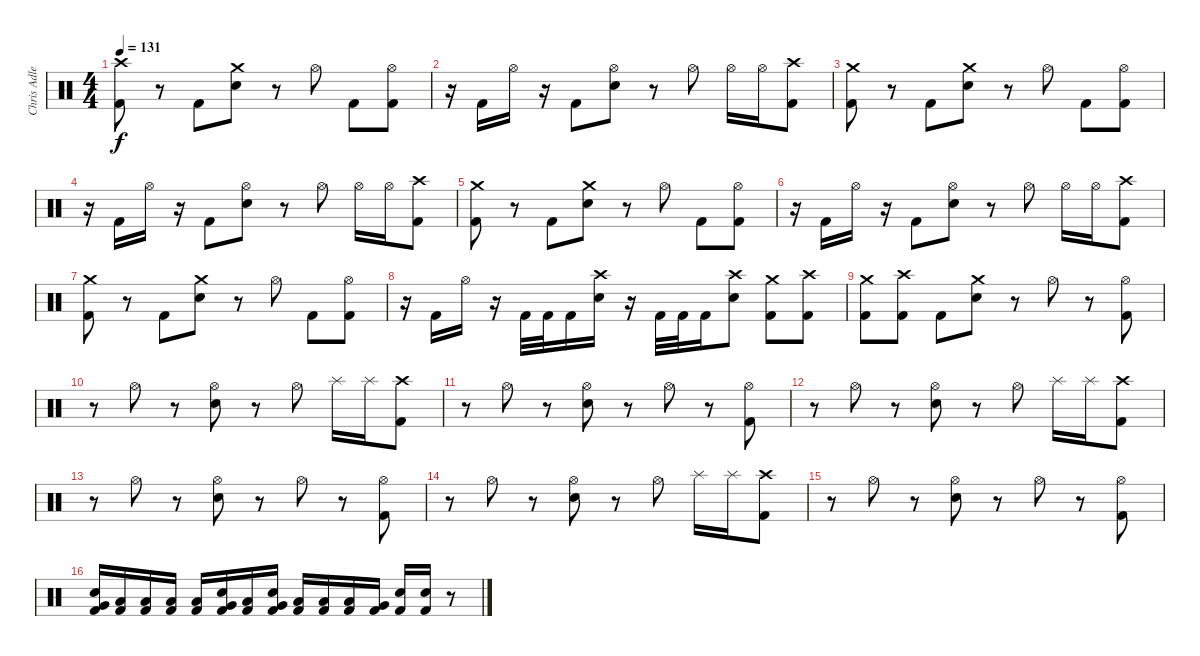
\track ("Chris Adler" "Chris Adle") {instrument percussion}
\staff {score}
\articulation defaults
\ts (4 4)
\tempo 131
\clef neutral
\ks c
("Crash high (hit)" "Kick (hit) 2").8{dy f} r.8 "Kick (hit) 2".8 ("Crash medium (hit)" "Electric Snare (hit)").8 r.8 "Hi-Hat (open)".8 "Kick (hit) 2".8 ("Hi-Hat (open)" "Kick (hit) 2").8 |
r.16 "Kick (hit) 2".16 "Hi-Hat (open)".16 r.16 "Kick (hit) 2".8 ("Hi-Hat (open)" "Electric Snare (hit)").8 r.8 "Hi-Hat (open)".8 "Hi-Hat (open)".16 "Hi-Hat (open)".16 ("Crash high (hit)" "Kick (hit) 2").8 |
("Crash medium (hit)" "Kick (hit) 2").8 r.8 "Kick (hit) 2".8 ("Crash medium (hit)" "Electric Snare (hit)").8 r.8 "Hi-Hat (open)".8 "Kick (hit) 2".8 ("Hi-Hat (open)" "Kick (hit) 2").8 |
r.16 "Kick (hit) 2".16 "Hi-Hat (open)".16 r.16 "Kick (hit) 2".8 ("Hi-Hat (open)" "Electric Snare (hit)").8 r.8 "Hi-Hat (open)".8 "Hi-Hat (open)".16 "Hi-Hat (open)".16 ("Crash high (hit)" "Kick (hit) 2").8 |
("Crash medium (hit)" "Kick (hit) 2").8 r.8 "Kick (hit) 2".8 ("Crash medium (hit)" "Electric Snare (hit)").8 r.8 "Hi-Hat (open)".8 "Kick (hit) 2".8 ("Hi-Hat (open)" "Kick (hit) 2").8 |
r.16 "Kick (hit) 2".16 "Hi-Hat (open)".16 r.16 "Kick (hit) 2".8 ("Hi-Hat (open)" "Electric Snare (hit)").8 r.8 "Hi-Hat (open)".8 "Hi-Hat (open)".16 "Hi-Hat (open)".16 ("Crash high (hit)" "Kick (hit) 2").8 |
("Crash medium (hit)" "Kick (hit) 2").8 r.8 "Kick (hit) 2".8 ("Crash medium (hit)" "Electric Snare (hit)").8 r.8 "Hi-Hat (open)".8 "Kick (hit) 2".8 ("Hi-Hat (open)" "Kick (hit) 2").8 |
r.16 "Kick (hit) 2".16 "Hi-Hat (open)".16 r.16 "Kick (hit) 2".32 "Kick (hit) 2".32 "Kick (hit) 2".16 ("Crash high (hit)" "Electric Snare (hit)").16 r.16 "Kick (hit) 2".32 "Kick (hit) 2".32 "Kick (hit) 2".16 ("Crash high (hit)" "Electric Snare (hit)").8 ("Crash medium (hit)" "Kick (hit) 2").8 ("Crash high (hit)" "Kick (hit) 2").8 |
("Crash medium (hit)" "Kick (hit) 2").8 ("Crash high (hit)" "Kick (hit) 2").8 "Kick (hit) 2".8 ("Crash medium (hit)" "Electric Snare (hit)").8 r.8 "Hi-Hat (open)".8 r.8 ("Hi-Hat (open)" "Kick (hit) 2").8 |
r.8 "Hi-Hat (open)".8 r.8 ("Hi-Hat (open)" "Electric Snare (hit)").8 r.8 "Hi-Hat (open)".8 "Splash (hit)".16 "Splash (hit)".16 ("Crash high (hit)" "Kick (hit) 2").8 |
r.8 "Hi-Hat (open)".8 r.8 ("Hi-Hat (open)" "Electric Snare (hit)").8 r.8 "Hi-Hat (open)".8 r.8 ("Hi-Hat (open)" "Kick (hit) 2").8 |
r.8 "Hi-Hat (open)".8 r.8 ("Hi-Hat (open)" "Electric Snare (hit)").8 r.8 "Hi-Hat (open)".8 "Splash (hit)".16 "Splash (hit)".16 ("Crash high (hit)" "Kick (hit) 2").8 |
r.8 "Hi-Hat (open)".8 r.8 ("Hi-Hat (open)" "Electric Snare (hit)").8 r.8 "Hi-Hat (open)".8 r.8 ("Hi-Hat (open)" "Kick (hit) 2").8 |
r.8 "Hi-Hat (open)".8 r.8 ("Hi-Hat (open)" "Electric Snare (hit)").8 r.8 "Hi-Hat (open)".8 "Splash (hit)".16 "Splash (hit)".16 ("Crash high (hit)" "Kick (hit) 2").8 |
r.8 "Hi-Hat (open)".8 r.8 ("Hi-Hat (open)" "Electric Snare (hit)").8 r.8 "Hi-Hat (open)".8 r.8 ("Hi-Hat (open)" "Kick (hit) 2").8 |
("Electric Snare (hit)" "Very Low Tom (hit)" "Kick (hit) 2").16 ("Low Floor Tom (hit)" "Kick (hit) 2").16 ("Low Floor Tom (hit)" "Kick (hit) 2").16 ("Low Floor Tom (hit)" "Kick (hit) 2").16 ("Low Floor Tom (hit)" "Kick (hit) 2").16 ("Electric Snare (hit)" "Very Low Tom (hit)" "Kick (hit) 2").16 ("Low Floor Tom (hit)" "Kick (hit) 2").16 ("Electric Snare (hit)" "Very Low Tom (hit)" "Kick (hit) 2").16 ("Low Floor Tom (hit)" "Kick (hit) 2").16 ("Low Floor Tom (hit)" "Kick (hit) 2").16 ("Low Floor Tom (hit)" "Kick (hit) 2").16 ("Very Low Tom (hit)" "Kick (hit) 2").16 ("Electric Snare (hit)" "Kick (hit) 2").16 ("Electric Snare (hit)" "Kick (hit) 2").16 r.8
